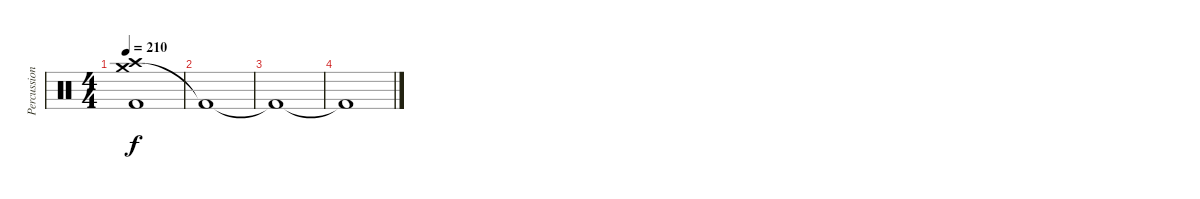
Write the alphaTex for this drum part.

\track ("Percussion" "Percussion") {instrument percussion}
\staff {score}
\articulation defaults
\ts (4 4)
\tempo 210
\clef neutral
\ks c
("Crash medium (hit)" "Crash high (hit)" "Kick (hit) 2").1{dy f volume 14} |
"Kick (hit) 2"{t}.1 |
"Kick (hit) 2"{t}.1 |
"Kick (hit) 2"{t}.1
